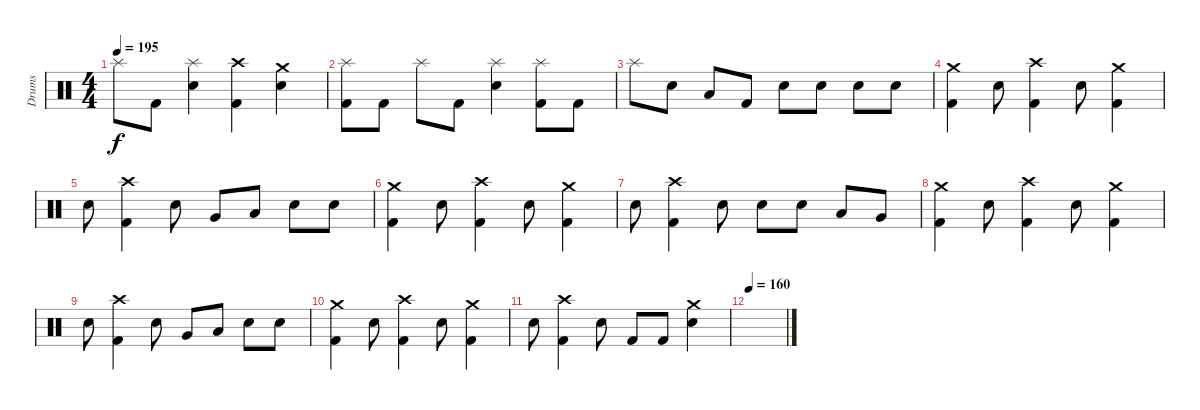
\track ("Drums" "Drums") {instrument percussion}
\staff {score}
\articulation defaults
\ts (4 4)
\tempo 195
\clef neutral
\ks c "Splash (hit)".8{dy f} "Kick (hit) 2".8
("Splash (hit)" "Snare (hit) 2").4 ("Crash high (hit)" "Kick (hit) 2").4 ("Crash medium (hit)" "Snare (hit) 2").4 |
("Splash (hit)" "Kick (hit) 2").8 "Kick (hit) 2".8 "Splash (hit)".8 "Kick (hit) 2".8 ("Splash (hit)" "Snare (hit) 2").4 ("Splash (hit)" "Kick (hit) 2").8 "Kick (hit) 2".8 |
"Splash (hit)".8 "Snare (hit) 2".8 "Low Tom (hit)".8 "Kick (hit) 2".8 "Snare (hit) 2".8 "Snare (hit) 2".8 "Snare (hit) 2".8 "Snare (hit) 2".8 |
("Crash medium (hit)" "Kick (hit) 2").4 "Snare (hit) 2".8 ("Crash high (hit)" "Kick (hit) 2").4 "Snare (hit) 2".8 ("Crash medium (hit)" "Kick (hit) 2").4 |
"Snare (hit) 2".8 ("Crash high (hit)" "Kick (hit) 2").4 "Snare (hit) 2".8 "Very Low Tom (hit)".8 "Low Tom (hit)".8 "Snare (hit) 2".8 "Snare (hit) 2".8 |
("Crash medium (hit)" "Kick (hit) 2").4 "Snare (hit) 2".8 ("Crash high (hit)" "Kick (hit) 2").4 "Snare (hit) 2".8 ("Crash medium (hit)" "Kick (hit) 2").4 |
"Snare (hit) 2".8 ("Crash high (hit)" "Kick (hit) 2").4 "Snare (hit) 2".8 "Snare (hit) 2".8 "Snare (hit) 2".8 "Low Tom (hit)".8 "Very Low Tom (hit)".8 |
("Crash medium (hit)" "Kick (hit) 2").4 "Snare (hit) 2".8 ("Crash high (hit)" "Kick (hit) 2").4 "Snare (hit) 2".8 ("Crash medium (hit)" "Kick (hit) 2").4 |
"Snare (hit) 2".8 ("Crash high (hit)" "Kick (hit) 2").4 "Snare (hit) 2".8 "Very Low Tom (hit)".8 "Low Tom (hit)".8 "Snare (hit) 2".8 "Snare (hit) 2".8 |
("Crash medium (hit)" "Kick (hit) 2").4 "Snare (hit) 2".8 ("Crash high (hit)" "Kick (hit) 2").4 "Snare (hit) 2".8 ("Crash medium (hit)" "Kick (hit) 2").4 |
"Snare (hit) 2".8 ("Crash high (hit)" "Kick (hit) 2").4 "Snare (hit) 2".8 "Kick (hit) 2".8 "Kick (hit) 2".8 ("Crash medium (hit)" "Snare (hit) 2").4 |
\tempo 160
